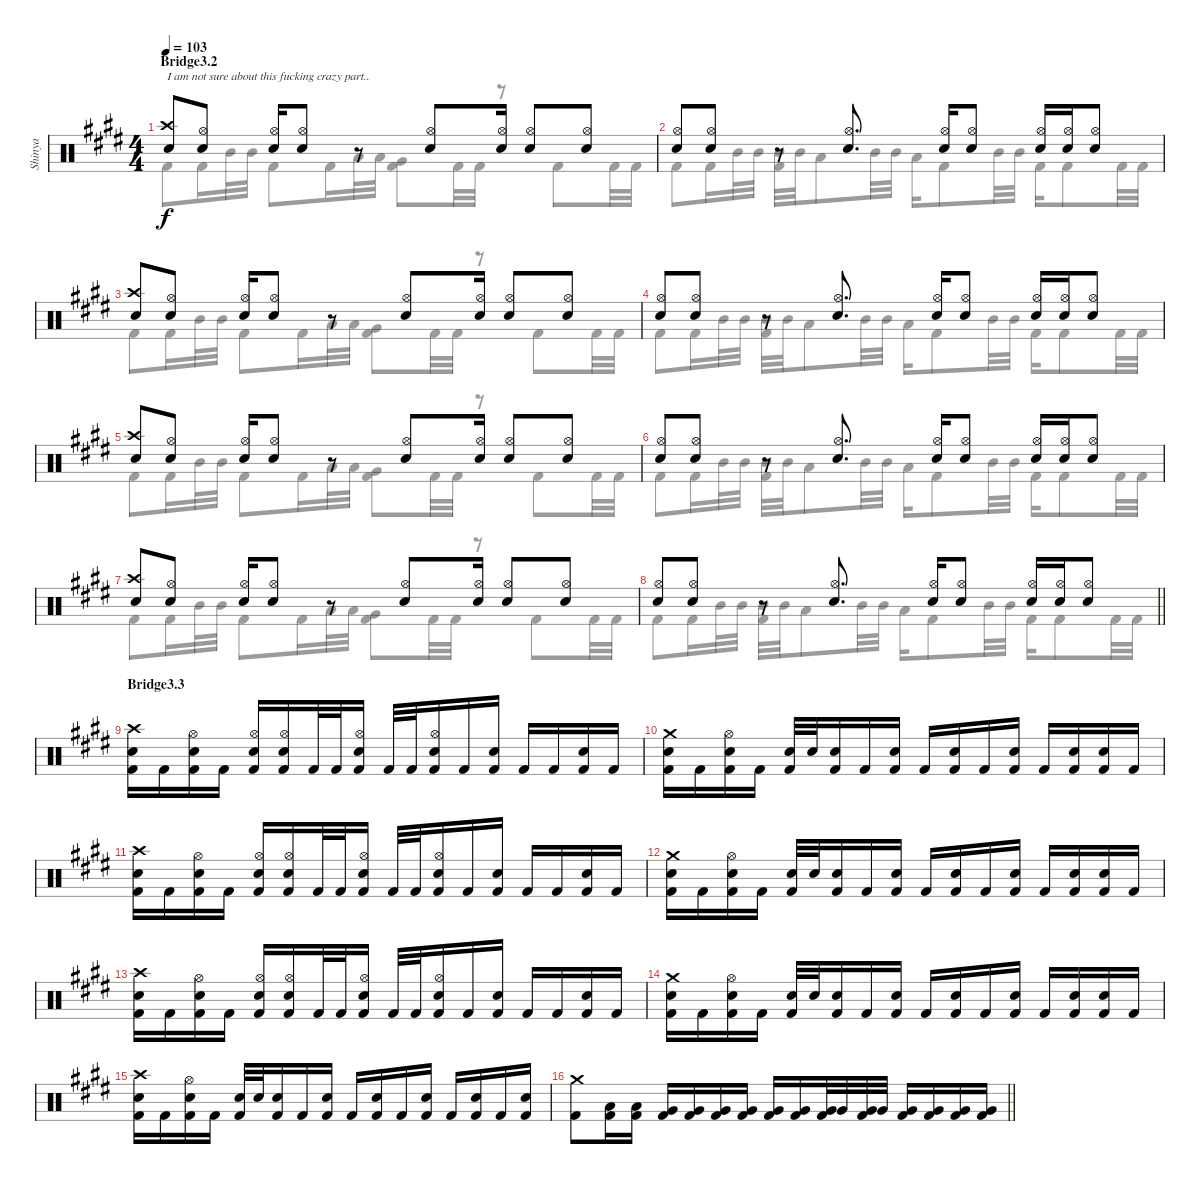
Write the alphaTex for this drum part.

\track ("Shinya" "Shinya") {instrument percussion}
\staff {score}
\articulation defaults
\voice
\ts (4 4)
\section ("" "Bridge3.2")
\tempo 103
\clef neutral
\ks c#minor
("Crash high (hit)" "Snare (hit) 2").8{txt "I am not sure about this fucking crazy part.." dy f} ("Hi-Hat (open)" "Snare (hit) 2").8 ("Hi-Hat (open)" "Snare (hit) 2").16 ("Hi-Hat (open)" "Snare (hit) 2").8 r.8 ("Hi-Hat (open)" "Snare (hit) 2").8 ("Hi-Hat (open)" "Snare (hit) 2").16 ("Hi-Hat (open)" "Snare (hit) 2").8 ("Hi-Hat (open)" "Snare (hit) 2").8 |
("Hi-Hat (open)" "Snare (hit) 2").8 ("Hi-Hat (open)" "Snare (hit) 2").8 r.8 ("Hi-Hat (open)" "Snare (hit) 2").8{d} ("Hi-Hat (open)" "Snare (hit) 2").16 ("Hi-Hat (open)" "Snare (hit) 2").8 ("Hi-Hat (open)" "Snare (hit) 2").16 ("Hi-Hat (open)" "Snare (hit) 2").16 ("Hi-Hat (open)" "Snare (hit) 2").8 |
("Crash high (hit)" "Snare (hit) 2").8 ("Hi-Hat (open)" "Snare (hit) 2").8 ("Hi-Hat (open)" "Snare (hit) 2").16 ("Hi-Hat (open)" "Snare (hit) 2").8 r.8 ("Hi-Hat (open)" "Snare (hit) 2").8 ("Hi-Hat (open)" "Snare (hit) 2").16 ("Hi-Hat (open)" "Snare (hit) 2").8 ("Hi-Hat (open)" "Snare (hit) 2").8 |
("Hi-Hat (open)" "Snare (hit) 2").8 ("Hi-Hat (open)" "Snare (hit) 2").8 r.8 ("Hi-Hat (open)" "Snare (hit) 2").8{d} ("Hi-Hat (open)" "Snare (hit) 2").16 ("Hi-Hat (open)" "Snare (hit) 2").8 ("Hi-Hat (open)" "Snare (hit) 2").16 ("Hi-Hat (open)" "Snare (hit) 2").16 ("Hi-Hat (open)" "Snare (hit) 2").8 |
("Crash high (hit)" "Snare (hit) 2").8 ("Hi-Hat (open)" "Snare (hit) 2").8 ("Hi-Hat (open)" "Snare (hit) 2").16 ("Hi-Hat (open)" "Snare (hit) 2").8 r.8 ("Hi-Hat (open)" "Snare (hit) 2").8 ("Hi-Hat (open)" "Snare (hit) 2").16 ("Hi-Hat (open)" "Snare (hit) 2").8 ("Hi-Hat (open)" "Snare (hit) 2").8 |
("Hi-Hat (open)" "Snare (hit) 2").8 ("Hi-Hat (open)" "Snare (hit) 2").8 r.8 ("Hi-Hat (open)" "Snare (hit) 2").8{d} ("Hi-Hat (open)" "Snare (hit) 2").16 ("Hi-Hat (open)" "Snare (hit) 2").8 ("Hi-Hat (open)" "Snare (hit) 2").16 ("Hi-Hat (open)" "Snare (hit) 2").16 ("Hi-Hat (open)" "Snare (hit) 2").8 |
("Crash high (hit)" "Snare (hit) 2").8 ("Hi-Hat (open)" "Snare (hit) 2").8 ("Hi-Hat (open)" "Snare (hit) 2").16 ("Hi-Hat (open)" "Snare (hit) 2").8 r.8 ("Hi-Hat (open)" "Snare (hit) 2").8 ("Hi-Hat (open)" "Snare (hit) 2").16 ("Hi-Hat (open)" "Snare (hit) 2").8 ("Hi-Hat (open)" "Snare (hit) 2").8 |
\barLineRight lightlight
("Hi-Hat (open)" "Snare (hit) 2").8 ("Hi-Hat (open)" "Snare (hit) 2").8 r.8 ("Hi-Hat (open)" "Snare (hit) 2").8{d} ("Hi-Hat (open)" "Snare (hit) 2").16 ("Hi-Hat (open)" "Snare (hit) 2").8 ("Hi-Hat (open)" "Snare (hit) 2").16 ("Hi-Hat (open)" "Snare (hit) 2").16 ("Hi-Hat (open)" "Snare (hit) 2").8 |
\section ("" "Bridge3.3")
("Crash high (hit)" "Snare (hit) 2" "Kick (hit) 2").16 "Kick (hit) 2".16 ("Hi-Hat (open)" "Snare (hit) 2" "Kick (hit) 2").16 "Kick (hit) 2".16 ("Hi-Hat (open)" "Snare (hit) 2" "Kick (hit) 2").16 ("Hi-Hat (open)" "Snare (hit) 2" "Kick (hit) 2").16 "Kick (hit) 2".32 "Kick (hit) 2".32 ("Hi-Hat (open)" "Snare (hit) 2" "Kick (hit) 2").16 "Kick (hit) 2".32 "Kick (hit) 2".32 ("Hi-Hat (open)" "Snare (hit) 2" "Kick (hit) 2").16 "Kick (hit) 2".16 ("Snare (hit) 2" "Kick (hit) 2").16 "Kick (hit) 2".16 "Kick (hit) 2".16 ("Snare (hit) 2" "Kick (hit) 2").16 "Kick (hit) 2".16 |
("Crash medium (hit)" "Snare (hit) 2" "Kick (hit) 2").16 "Kick (hit) 2".16 ("Hi-Hat (open)" "Snare (hit) 2" "Kick (hit) 2").16 "Kick (hit) 2".16 ("Snare (hit) 2" "Kick (hit) 2").32 "Snare (hit) 2".32 ("Snare (hit) 2" "Kick (hit) 2").16 "Kick (hit) 2".16 ("Snare (hit) 2" "Kick (hit) 2").16 "Kick (hit) 2".16 ("Snare (hit) 2" "Kick (hit) 2").16 "Kick (hit) 2".16 ("Snare (hit) 2" "Kick (hit) 2").16 "Kick (hit) 2".16 ("Snare (hit) 2" "Kick (hit) 2").16 ("Snare (hit) 2" "Kick (hit) 2").16 "Kick (hit) 2".16 |
("Crash high (hit)" "Snare (hit) 2" "Kick (hit) 2").16 "Kick (hit) 2".16 ("Hi-Hat (open)" "Snare (hit) 2" "Kick (hit) 2").16 "Kick (hit) 2".16 ("Hi-Hat (open)" "Snare (hit) 2" "Kick (hit) 2").16 ("Hi-Hat (open)" "Snare (hit) 2" "Kick (hit) 2").16 "Kick (hit) 2".32 "Kick (hit) 2".32 ("Hi-Hat (open)" "Snare (hit) 2" "Kick (hit) 2").16 "Kick (hit) 2".32 "Kick (hit) 2".32 ("Hi-Hat (open)" "Snare (hit) 2" "Kick (hit) 2").16 "Kick (hit) 2".16 ("Snare (hit) 2" "Kick (hit) 2").16 "Kick (hit) 2".16 "Kick (hit) 2".16 ("Snare (hit) 2" "Kick (hit) 2").16 "Kick (hit) 2".16 |
("Crash medium (hit)" "Snare (hit) 2" "Kick (hit) 2").16 "Kick (hit) 2".16 ("Hi-Hat (open)" "Snare (hit) 2" "Kick (hit) 2").16 "Kick (hit) 2".16 ("Snare (hit) 2" "Kick (hit) 2").32 "Snare (hit) 2".32 ("Snare (hit) 2" "Kick (hit) 2").16 "Kick (hit) 2".16 ("Snare (hit) 2" "Kick (hit) 2").16 "Kick (hit) 2".16 ("Snare (hit) 2" "Kick (hit) 2").16 "Kick (hit) 2".16 ("Snare (hit) 2" "Kick (hit) 2").16 "Kick (hit) 2".16 ("Snare (hit) 2" "Kick (hit) 2").16 ("Snare (hit) 2" "Kick (hit) 2").16 "Kick (hit) 2".16 |
("Crash high (hit)" "Snare (hit) 2" "Kick (hit) 2").16 "Kick (hit) 2".16 ("Hi-Hat (open)" "Snare (hit) 2" "Kick (hit) 2").16 "Kick (hit) 2".16 ("Hi-Hat (open)" "Snare (hit) 2" "Kick (hit) 2").16 ("Hi-Hat (open)" "Snare (hit) 2" "Kick (hit) 2").16 "Kick (hit) 2".32 "Kick (hit) 2".32 ("Hi-Hat (open)" "Snare (hit) 2" "Kick (hit) 2").16 "Kick (hit) 2".32 "Kick (hit) 2".32 ("Hi-Hat (open)" "Snare (hit) 2" "Kick (hit) 2").16 "Kick (hit) 2".16 ("Snare (hit) 2" "Kick (hit) 2").16 "Kick (hit) 2".16 "Kick (hit) 2".16 ("Snare (hit) 2" "Kick (hit) 2").16 "Kick (hit) 2".16 |
("Crash medium (hit)" "Snare (hit) 2" "Kick (hit) 2").16 "Kick (hit) 2".16 ("Hi-Hat (open)" "Snare (hit) 2" "Kick (hit) 2").16 "Kick (hit) 2".16 ("Snare (hit) 2" "Kick (hit) 2").32 "Snare (hit) 2".32 ("Snare (hit) 2" "Kick (hit) 2").16 "Kick (hit) 2".16 ("Snare (hit) 2" "Kick (hit) 2").16 "Kick (hit) 2".16 ("Snare (hit) 2" "Kick (hit) 2").16 "Kick (hit) 2".16 ("Snare (hit) 2" "Kick (hit) 2").16 "Kick (hit) 2".16 ("Snare (hit) 2" "Kick (hit) 2").16 ("Snare (hit) 2" "Kick (hit) 2").16 "Kick (hit) 2".16 |
("Crash high (hit)" "Snare (hit) 2" "Kick (hit) 2").16 "Kick (hit) 2".16 ("Hi-Hat (open)" "Snare (hit) 2" "Kick (hit) 2").16 "Kick (hit) 2".16 ("Snare (hit) 2" "Kick (hit) 2").32 "Snare (hit) 2".32 ("Snare (hit) 2" "Kick (hit) 2").16 "Kick (hit) 2".16 ("Snare (hit) 2" "Kick (hit) 2").16 "Kick (hit) 2".16 ("Snare (hit) 2" "Kick (hit) 2").16 "Kick (hit) 2".16 ("Snare (hit) 2" "Kick (hit) 2").16 "Kick (hit) 2".16 ("Snare (hit) 2" "Kick (hit) 2").16 "Kick (hit) 2".16 ("Snare (hit) 2" "Kick (hit) 2").16 |
\barLineRight lightlight
("Crash medium (hit)" "Kick (hit) 2").8 ("Low Tom (hit)" "Kick (hit) 2").16 ("Low Tom (hit)" "Kick (hit) 2").16 ("Very Low Tom (hit)" "Kick (hit) 2").16 ("Very Low Tom (hit)" "Kick (hit) 2").16 ("Very Low Tom (hit)" "Kick (hit) 2").16 ("Very Low Tom (hit)" "Kick (hit) 2").16 ("Very Low Tom (hit)" "Kick (hit) 2").16 ("Very Low Tom (hit)" "Kick (hit) 2").16 ("Very Low Tom (hit)" "Kick (hit) 2").32 "Very Low Tom (hit)".32 ("Very Low Tom (hit)" "Kick (hit) 2").32 "Very Low Tom (hit)".32 ("Very Low Tom (hit)" "Kick (hit) 2").16 ("Very Low Tom (hit)" "Kick (hit) 2").16 ("Very Low Tom (hit)" "Kick (hit) 2").16 ("Very Low Tom (hit)" "Kick (hit) 2").16
\voice
\clef neutral
\ottava regular
\simile none
\ks c#minor "Kick (hit) 2".8{dy f} "Kick (hit) 2".16 "Mid Tom (hit)".32 "Mid Tom (hit)".32 "Kick (hit) 2".8 "Kick (hit) 2".16 "Low Tom (hit)".32 "Low Tom (hit)".32
("Very Low Tom (hit)" "Kick (hit) 2").8 "Kick (hit) 2".32 "Kick (hit) 2".32 r.8 "Kick (hit) 2".8 "Kick (hit) 2".32 "Kick (hit) 2".32 |
"Kick (hit) 2".8 "Kick (hit) 2".16 "Mid Tom (hit)".32 "Mid Tom (hit)".32 ("Mid Tom (hit)" "Kick (hit) 2").32 "Mid Tom (hit)".32 "Low Tom (hit)".8 "Mid Tom (hit)".32 "Mid Tom (hit)".32 "Low Tom (hit)".16 "Kick (hit) 2".8 "Mid Tom (hit)".32 "Mid Tom (hit)".32 "Kick (hit) 2".16 "Kick (hit) 2".8 "Kick (hit) 2".32 "Kick (hit) 2".32 |
"Kick (hit) 2".8 "Kick (hit) 2".16 "Mid Tom (hit)".32 "Mid Tom (hit)".32 "Kick (hit) 2".8 "Kick (hit) 2".16 "Low Tom (hit)".32 "Low Tom (hit)".32 ("Very Low Tom (hit)" "Kick (hit) 2").8 "Kick (hit) 2".32 "Kick (hit) 2".32 r.8 "Kick (hit) 2".8 "Kick (hit) 2".32 "Kick (hit) 2".32 |
"Kick (hit) 2".8 "Kick (hit) 2".16 "Mid Tom (hit)".32 "Mid Tom (hit)".32 ("Mid Tom (hit)" "Kick (hit) 2").32 "Mid Tom (hit)".32 "Low Tom (hit)".8 "Mid Tom (hit)".32 "Mid Tom (hit)".32 "Low Tom (hit)".16 "Kick (hit) 2".8 "Mid Tom (hit)".32 "Mid Tom (hit)".32 "Kick (hit) 2".16 "Kick (hit) 2".8 "Kick (hit) 2".32 "Kick (hit) 2".32 |
"Kick (hit) 2".8 "Kick (hit) 2".16 "Mid Tom (hit)".32 "Mid Tom (hit)".32 "Kick (hit) 2".8 "Kick (hit) 2".16 "Low Tom (hit)".32 "Low Tom (hit)".32 ("Very Low Tom (hit)" "Kick (hit) 2").8 "Kick (hit) 2".32 "Kick (hit) 2".32 r.8 "Kick (hit) 2".8 "Kick (hit) 2".32 "Kick (hit) 2".32 |
"Kick (hit) 2".8 "Kick (hit) 2".16 "Mid Tom (hit)".32 "Mid Tom (hit)".32 ("Mid Tom (hit)" "Kick (hit) 2").32 "Mid Tom (hit)".32 "Low Tom (hit)".8 "Mid Tom (hit)".32 "Mid Tom (hit)".32 "Low Tom (hit)".16 "Kick (hit) 2".8 "Mid Tom (hit)".32 "Mid Tom (hit)".32 "Kick (hit) 2".16 "Kick (hit) 2".8 "Kick (hit) 2".32 "Kick (hit) 2".32 |
"Kick (hit) 2".8 "Kick (hit) 2".16 "Mid Tom (hit)".32 "Mid Tom (hit)".32 "Kick (hit) 2".8 "Kick (hit) 2".16 "Low Tom (hit)".32 "Low Tom (hit)".32 ("Very Low Tom (hit)" "Kick (hit) 2").8 "Kick (hit) 2".32 "Kick (hit) 2".32 r.8 "Kick (hit) 2".8 "Kick (hit) 2".32 "Kick (hit) 2".32 |
\barLineRight lightlight "Kick (hit) 2".8 "Kick (hit) 2".16 "Mid Tom (hit)".32 "Mid Tom (hit)".32
("Mid Tom (hit)" "Kick (hit) 2").32 "Mid Tom (hit)".32 "Low Tom (hit)".8 "Mid Tom (hit)".32 "Mid Tom (hit)".32 "Low Tom (hit)".16 "Kick (hit) 2".8 "Mid Tom (hit)".32 "Mid Tom (hit)".32 "Kick (hit) 2".16 "Kick (hit) 2".8 "Kick (hit) 2".32 "Kick (hit) 2".32 |
|
|
|
|
|
|
|
\barLineRight lightlight
